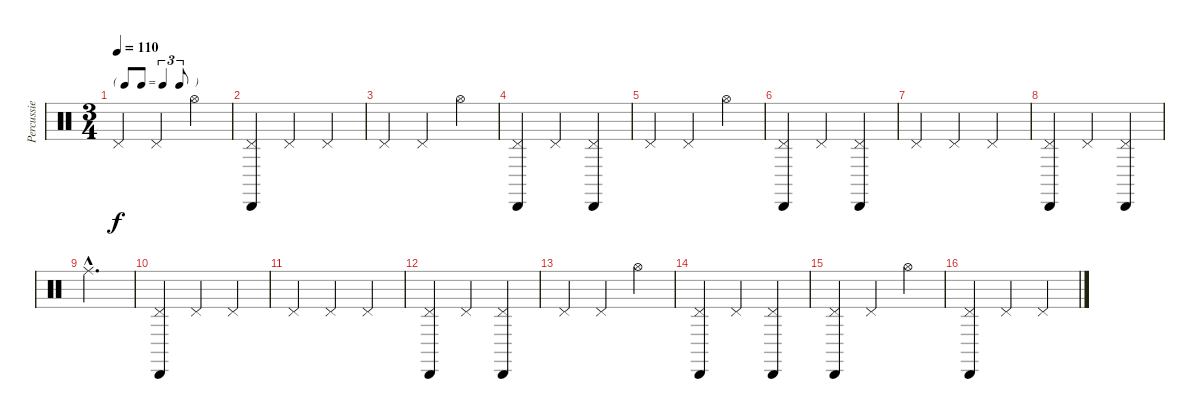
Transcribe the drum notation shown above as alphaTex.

\track ("Percussie" "Percussie") {instrument percussion}
\staff {score}
\articulation defaults
\ts (3 4)
\tf triplet8th
\tempo 110
\clef neutral
\ks c "Pedal Hi-Hat (hit)".4{dy f} "Pedal Hi-Hat (hit)".4 "Hi-Hat (open)".4
|
("Cabasa (hit)" "Pedal Hi-Hat (hit)").4 "Pedal Hi-Hat (hit)".4 "Pedal Hi-Hat (hit)".4 |
"Pedal Hi-Hat (hit)".4 "Pedal Hi-Hat (hit)".4 "Hi-Hat (open)".4 |
("Cabasa (hit)" "Pedal Hi-Hat (hit)").4 "Pedal Hi-Hat (hit)".4 ("Cabasa (hit)" "Pedal Hi-Hat (hit)").4 |
"Pedal Hi-Hat (hit)".4 "Pedal Hi-Hat (hit)".4 "Hi-Hat (open)".4 |
("Cabasa (hit)" "Pedal Hi-Hat (hit)").4 "Pedal Hi-Hat (hit)".4 ("Cabasa (hit)" "Pedal Hi-Hat (hit)").4 |
"Pedal Hi-Hat (hit)".4 "Pedal Hi-Hat (hit)".4 "Pedal Hi-Hat (hit)".4 |
("Cabasa (hit)" "Pedal Hi-Hat (hit)").4 "Pedal Hi-Hat (hit)".4 ("Cabasa (hit)" "Pedal Hi-Hat (hit)").4 |
"Ride (middle)"{hac}.2{d} |
("Cabasa (hit)" "Pedal Hi-Hat (hit)").4 "Pedal Hi-Hat (hit)".4 "Pedal Hi-Hat (hit)".4 |
"Pedal Hi-Hat (hit)".4 "Pedal Hi-Hat (hit)".4 "Pedal Hi-Hat (hit)".4 |
("Cabasa (hit)" "Pedal Hi-Hat (hit)").4 "Pedal Hi-Hat (hit)".4 ("Cabasa (hit)" "Pedal Hi-Hat (hit)").4 |
"Pedal Hi-Hat (hit)".4 "Pedal Hi-Hat (hit)".4 "Hi-Hat (open)".4 |
("Cabasa (hit)" "Pedal Hi-Hat (hit)").4 "Pedal Hi-Hat (hit)".4 ("Cabasa (hit)" "Pedal Hi-Hat (hit)").4 |
("Cabasa (hit)" "Pedal Hi-Hat (hit)").4 "Pedal Hi-Hat (hit)".4 "Hi-Hat (open)".4 |
("Cabasa (hit)" "Pedal Hi-Hat (hit)").4 "Pedal Hi-Hat (hit)".4 "Pedal Hi-Hat (hit)".4
